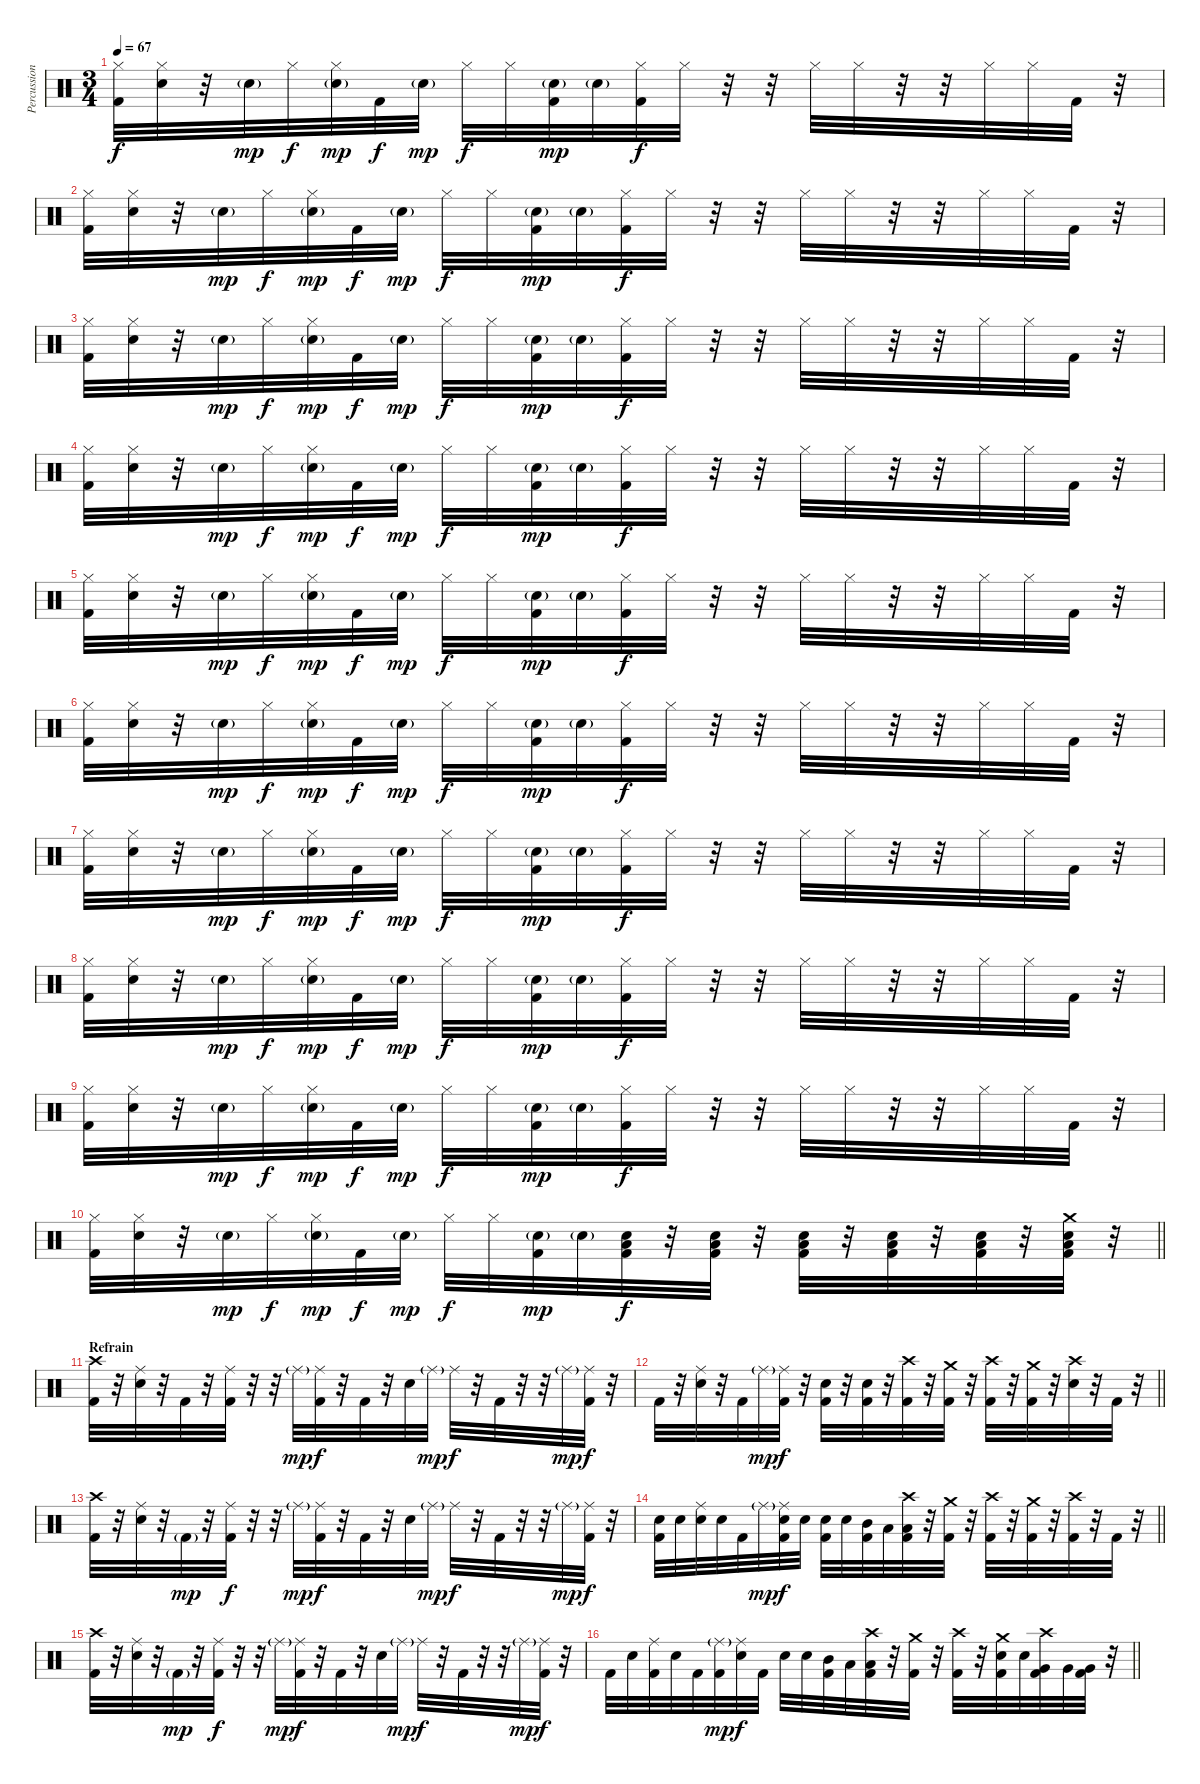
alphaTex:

\track ("Percussions" "Percussion") {instrument percussion}
\staff {score}
\articulation defaults
\ts (3 4)
\tempo 67
\clef neutral
\ks c
("Hi-Hat (closed)" "Kick (hit) 2").32{dy f} ("Hi-Hat (closed)" "Electric Snare (hit)").32 r.32 "Electric Snare (hit)"{g}.32{dy mp} "Hi-Hat (closed)".32{dy f} ("Hi-Hat (closed)" "Electric Snare (hit)"{g}).32{dy mp} "Kick (hit) 2".32{dy f} "Electric Snare (hit)"{g}.32{dy mp} "Hi-Hat (closed)".32{dy f} "Hi-Hat (closed)".32 ("Electric Snare (hit)"{g} "Kick (hit) 2").32{dy mp} "Electric Snare (hit)"{g}.32 ("Hi-Hat (closed)" "Kick (hit) 2").32{dy f} "Hi-Hat (closed)".32 r.32 r.32 "Hi-Hat (closed)".32 "Hi-Hat (closed)".32 r.32 r.32 "Hi-Hat (closed)".32 "Hi-Hat (closed)".32 "Kick (hit) 2".32 r.32 |
("Hi-Hat (closed)" "Kick (hit) 2").32 ("Hi-Hat (closed)" "Electric Snare (hit)").32 r.32 "Electric Snare (hit)"{g}.32{dy mp} "Hi-Hat (closed)".32{dy f} ("Hi-Hat (closed)" "Electric Snare (hit)"{g}).32{dy mp} "Kick (hit) 2".32{dy f} "Electric Snare (hit)"{g}.32{dy mp} "Hi-Hat (closed)".32{dy f} "Hi-Hat (closed)".32 ("Electric Snare (hit)"{g} "Kick (hit) 2").32{dy mp} "Electric Snare (hit)"{g}.32 ("Hi-Hat (closed)" "Kick (hit) 2").32{dy f} "Hi-Hat (closed)".32 r.32 r.32 "Hi-Hat (closed)".32 "Hi-Hat (closed)".32 r.32 r.32 "Hi-Hat (closed)".32 "Hi-Hat (closed)".32 "Kick (hit) 2".32 r.32 |
("Hi-Hat (closed)" "Kick (hit) 2").32 ("Hi-Hat (closed)" "Electric Snare (hit)").32 r.32 "Electric Snare (hit)"{g}.32{dy mp} "Hi-Hat (closed)".32{dy f} ("Hi-Hat (closed)" "Electric Snare (hit)"{g}).32{dy mp} "Kick (hit) 2".32{dy f} "Electric Snare (hit)"{g}.32{dy mp} "Hi-Hat (closed)".32{dy f} "Hi-Hat (closed)".32 ("Electric Snare (hit)"{g} "Kick (hit) 2").32{dy mp} "Electric Snare (hit)"{g}.32 ("Hi-Hat (closed)" "Kick (hit) 2").32{dy f} "Hi-Hat (closed)".32 r.32 r.32 "Hi-Hat (closed)".32 "Hi-Hat (closed)".32 r.32 r.32 "Hi-Hat (closed)".32 "Hi-Hat (closed)".32 "Kick (hit) 2".32 r.32 |
("Hi-Hat (closed)" "Kick (hit) 2").32 ("Hi-Hat (closed)" "Electric Snare (hit)").32 r.32 "Electric Snare (hit)"{g}.32{dy mp} "Hi-Hat (closed)".32{dy f} ("Hi-Hat (closed)" "Electric Snare (hit)"{g}).32{dy mp} "Kick (hit) 2".32{dy f} "Electric Snare (hit)"{g}.32{dy mp} "Hi-Hat (closed)".32{dy f} "Hi-Hat (closed)".32 ("Electric Snare (hit)"{g} "Kick (hit) 2").32{dy mp} "Electric Snare (hit)"{g}.32 ("Hi-Hat (closed)" "Kick (hit) 2").32{dy f} "Hi-Hat (closed)".32 r.32 r.32 "Hi-Hat (closed)".32 "Hi-Hat (closed)".32 r.32 r.32 "Hi-Hat (closed)".32 "Hi-Hat (closed)".32 "Kick (hit) 2".32 r.32 |
("Hi-Hat (closed)" "Kick (hit) 2").32 ("Hi-Hat (closed)" "Electric Snare (hit)").32 r.32 "Electric Snare (hit)"{g}.32{dy mp} "Hi-Hat (closed)".32{dy f} ("Hi-Hat (closed)" "Electric Snare (hit)"{g}).32{dy mp} "Kick (hit) 2".32{dy f} "Electric Snare (hit)"{g}.32{dy mp} "Hi-Hat (closed)".32{dy f} "Hi-Hat (closed)".32 ("Electric Snare (hit)"{g} "Kick (hit) 2").32{dy mp} "Electric Snare (hit)"{g}.32 ("Hi-Hat (closed)" "Kick (hit) 2").32{dy f} "Hi-Hat (closed)".32 r.32 r.32 "Hi-Hat (closed)".32 "Hi-Hat (closed)".32 r.32 r.32 "Hi-Hat (closed)".32 "Hi-Hat (closed)".32 "Kick (hit) 2".32 r.32 |
("Hi-Hat (closed)" "Kick (hit) 2").32 ("Hi-Hat (closed)" "Electric Snare (hit)").32 r.32 "Electric Snare (hit)"{g}.32{dy mp} "Hi-Hat (closed)".32{dy f} ("Hi-Hat (closed)" "Electric Snare (hit)"{g}).32{dy mp} "Kick (hit) 2".32{dy f} "Electric Snare (hit)"{g}.32{dy mp} "Hi-Hat (closed)".32{dy f} "Hi-Hat (closed)".32 ("Electric Snare (hit)"{g} "Kick (hit) 2").32{dy mp} "Electric Snare (hit)"{g}.32 ("Hi-Hat (closed)" "Kick (hit) 2").32{dy f} "Hi-Hat (closed)".32 r.32 r.32 "Hi-Hat (closed)".32 "Hi-Hat (closed)".32 r.32 r.32 "Hi-Hat (closed)".32 "Hi-Hat (closed)".32 "Kick (hit) 2".32 r.32 |
("Hi-Hat (closed)" "Kick (hit) 2").32 ("Hi-Hat (closed)" "Electric Snare (hit)").32 r.32 "Electric Snare (hit)"{g}.32{dy mp} "Hi-Hat (closed)".32{dy f} ("Hi-Hat (closed)" "Electric Snare (hit)"{g}).32{dy mp} "Kick (hit) 2".32{dy f} "Electric Snare (hit)"{g}.32{dy mp} "Hi-Hat (closed)".32{dy f} "Hi-Hat (closed)".32 ("Electric Snare (hit)"{g} "Kick (hit) 2").32{dy mp} "Electric Snare (hit)"{g}.32 ("Hi-Hat (closed)" "Kick (hit) 2").32{dy f} "Hi-Hat (closed)".32 r.32 r.32 "Hi-Hat (closed)".32 "Hi-Hat (closed)".32 r.32 r.32 "Hi-Hat (closed)".32 "Hi-Hat (closed)".32 "Kick (hit) 2".32 r.32 |
("Hi-Hat (closed)" "Kick (hit) 2").32 ("Hi-Hat (closed)" "Electric Snare (hit)").32 r.32 "Electric Snare (hit)"{g}.32{dy mp} "Hi-Hat (closed)".32{dy f} ("Hi-Hat (closed)" "Electric Snare (hit)"{g}).32{dy mp} "Kick (hit) 2".32{dy f} "Electric Snare (hit)"{g}.32{dy mp} "Hi-Hat (closed)".32{dy f} "Hi-Hat (closed)".32 ("Electric Snare (hit)"{g} "Kick (hit) 2").32{dy mp} "Electric Snare (hit)"{g}.32 ("Hi-Hat (closed)" "Kick (hit) 2").32{dy f} "Hi-Hat (closed)".32 r.32 r.32 "Hi-Hat (closed)".32 "Hi-Hat (closed)".32 r.32 r.32 "Hi-Hat (closed)".32 "Hi-Hat (closed)".32 "Kick (hit) 2".32 r.32 |
("Hi-Hat (closed)" "Kick (hit) 2").32 ("Hi-Hat (closed)" "Electric Snare (hit)").32 r.32 "Electric Snare (hit)"{g}.32{dy mp} "Hi-Hat (closed)".32{dy f} ("Hi-Hat (closed)" "Electric Snare (hit)"{g}).32{dy mp} "Kick (hit) 2".32{dy f} "Electric Snare (hit)"{g}.32{dy mp} "Hi-Hat (closed)".32{dy f} "Hi-Hat (closed)".32 ("Electric Snare (hit)"{g} "Kick (hit) 2").32{dy mp} "Electric Snare (hit)"{g}.32 ("Hi-Hat (closed)" "Kick (hit) 2").32{dy f} "Hi-Hat (closed)".32 r.32 r.32 "Hi-Hat (closed)".32 "Hi-Hat (closed)".32 r.32 r.32 "Hi-Hat (closed)".32 "Hi-Hat (closed)".32 "Kick (hit) 2".32 r.32 |
\barLineRight lightlight
("Hi-Hat (closed)" "Kick (hit) 2").32 ("Hi-Hat (closed)" "Electric Snare (hit)").32 r.32 "Electric Snare (hit)"{g}.32{dy mp} "Hi-Hat (closed)".32{dy f} ("Hi-Hat (closed)" "Electric Snare (hit)"{g}).32{dy mp} "Kick (hit) 2".32{dy f} "Electric Snare (hit)"{g}.32{dy mp} "Hi-Hat (closed)".32{dy f} "Hi-Hat (closed)".32 ("Electric Snare (hit)"{g} "Kick (hit) 2").32{dy mp} "Electric Snare (hit)"{g}.32 ("Low Floor Tom (hit)" "Electric Snare (hit)" "Kick (hit) 2").32{dy f} r.32 ("Low Floor Tom (hit)" "Electric Snare (hit)" "Kick (hit) 2").32 r.32 ("Low Floor Tom (hit)" "Electric Snare (hit)" "Kick (hit) 2").32 r.32 ("Low Floor Tom (hit)" "Electric Snare (hit)" "Kick (hit) 2").32 r.32 ("Low Floor Tom (hit)" "Electric Snare (hit)" "Kick (hit) 2").32 r.32 ("Crash medium (hit)" "Low Floor Tom (hit)" "Electric Snare (hit)" "Kick (hit) 2").32 r.32 |
\section ("" "Refrain")
("Crash high (hit)" "Kick (hit) 2").32 r.32 ("Ride (middle)" "Electric Snare (hit)").32 r.32 "Kick (hit) 2".32 r.32 ("Ride (middle)" "Kick (hit) 2").32 r.32 r.32 "Ride (middle)"{g}.32{dy mp} ("Ride (middle)" "Kick (hit) 2").32{dy f} r.32 "Kick (hit) 2".32 r.32 "Electric Snare (hit)".32 "Ride (middle)"{g}.32{dy mp} "Ride (middle)".32{dy f} r.32 "Kick (hit) 2".32 r.32 r.32 "Ride (middle)"{g}.32{dy mp} ("Ride (middle)" "Kick (hit) 2").32{dy f} r.32 |
\barLineRight lightlight "Kick (hit) 2".32
r.32 ("Ride (middle)" "Electric Snare (hit)").32 r.32 "Kick (hit) 2".32 "Ride (middle)"{g}.32{dy mp} ("Ride (middle)" "Kick (hit) 2").32{dy f} r.32 ("Electric Snare (hit)" "Kick (hit) 2").32 r.32 ("Electric Snare (hit)" "Kick (hit) 2").32 r.32 ("Crash high (hit)" "Kick (hit) 2").32 r.32 ("Crash medium (hit)" "Kick (hit) 2").32 r.32 ("Crash high (hit)" "Kick (hit) 2").32 r.32 ("Crash medium (hit)" "Kick (hit) 2").32 r.32 ("Crash high (hit)" "Electric Snare (hit)").32 r.32 "Kick (hit) 2".32 r.32 |
("Crash high (hit)" "Kick (hit) 2").32 r.32 ("Ride (middle)" "Electric Snare (hit)").32 r.32 "Kick (hit) 2"{g}.32{dy mp} r.32 ("Ride (middle)" "Kick (hit) 2").32{dy f} r.32 r.32 "Ride (middle)"{g}.32{dy mp} ("Ride (middle)" "Kick (hit) 2").32{dy f} r.32 "Kick (hit) 2".32 r.32 "Electric Snare (hit)".32 "Ride (middle)"{g}.32{dy mp} "Ride (middle)".32{dy f} r.32 "Kick (hit) 2".32 r.32 r.32 "Ride (middle)"{g}.32{dy mp} ("Ride (middle)" "Kick (hit) 2").32{dy f} r.32 |
\barLineRight lightlight
("Electric Snare (hit)" "Kick (hit) 2").32 "Electric Snare (hit)".32 ("Ride (middle)" "Electric Snare (hit)").32 "Electric Snare (hit)".32 "Kick (hit) 2".32 "Ride (middle)"{g}.32{dy mp} ("Ride (middle)" "Electric Snare (hit)" "Kick (hit) 2").32{dy f} "Electric Snare (hit)".32 ("Electric Snare (hit)" "Kick (hit) 2").32 "Electric Snare (hit)".32 ("Mid Tom (hit)" "Kick (hit) 2").32 "Low Tom (hit)".32 ("Crash high (hit)" "Low Floor Tom (hit)" "Kick (hit) 2").32 r.32 ("Crash medium (hit)" "Kick (hit) 2").32 r.32 ("Crash high (hit)" "Kick (hit) 2").32 r.32 ("Crash medium (hit)" "Kick (hit) 2").32 r.32 ("Crash high (hit)" "Kick (hit) 2").32 r.32 "Kick (hit) 2".32 r.32 |
("Crash high (hit)" "Kick (hit) 2").32 r.32 ("Ride (middle)" "Electric Snare (hit)").32 r.32 "Kick (hit) 2"{g}.32{dy mp} r.32 ("Ride (middle)" "Kick (hit) 2").32{dy f} r.32 r.32 "Ride (middle)"{g}.32{dy mp} ("Ride (middle)" "Kick (hit) 2").32{dy f} r.32 "Kick (hit) 2".32 r.32 "Electric Snare (hit)".32 "Ride (middle)"{g}.32{dy mp} "Ride (middle)".32{dy f} r.32 "Kick (hit) 2".32 r.32 r.32 "Ride (middle)"{g}.32{dy mp} ("Ride (middle)" "Kick (hit) 2").32{dy f} r.32 |
\barLineRight lightlight "Kick (hit) 2".32 "Electric Snare (hit)".32
("Ride (middle)" "Kick (hit) 2").32 "Electric Snare (hit)".32 "Kick (hit) 2".32 ("Ride (middle)"{g} "Kick (hit) 2").32{dy mp} ("Ride (middle)" "Electric Snare (hit)").32{dy f} "Kick (hit) 2".32 "Electric Snare (hit)".32 "Electric Snare (hit)".32 ("Mid Tom (hit)" "Kick (hit) 2").32 "Low Tom (hit)".32 ("Crash high (hit)" "Low Floor Tom (hit)" "Kick (hit) 2").32 r.32 ("Crash medium (hit)" "Kick (hit) 2").32 r.32 ("Crash high (hit)" "Kick (hit) 2").32 r.32 ("Crash medium (hit)" "Electric Snare (hit)" "Kick (hit) 2").32 "Electric Snare (hit)".32 ("Crash high (hit)" "Very Low Tom (hit)" "Kick (hit) 2").32 "Very Low Tom (hit)".32 ("Very Low Tom (hit)" "Kick (hit) 2").32 r.32
